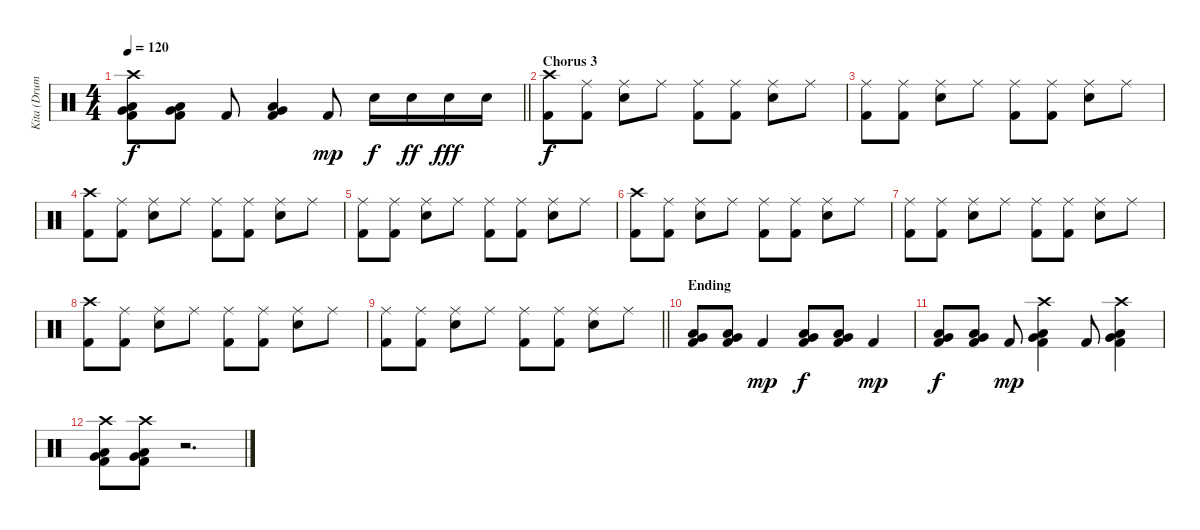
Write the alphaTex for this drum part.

\track ("Kita (Drums)" "Kita (Drum") {instrument percussion}
\staff {score}
\articulation defaults
\ts (4 4)
\tempo 120
\clef neutral
\barLineRight lightlight
\ks c
("Crash high (hit)" "Low Floor Tom (hit)" "Very Low Tom (hit)" "Kick (hit) 2").8{dy f} ("Low Floor Tom (hit)" "Very Low Tom (hit)" "Kick (hit) 2").8 "Kick (hit) 2".8 ("Kick (hit) 2" "Low Floor Tom (hit)" "Very Low Tom (hit)").4 "Kick (hit) 2".8{dy mp} "Snare (hit) 2".16{dy f} "Snare (hit) 2".16{dy ff} "Snare (hit) 2".16{dy fff} "Snare (hit) 2".16 |
\section ("" "Chorus 3")
("Crash high (hit)" "Kick (hit) 2").8{dy f} ("Ride (middle)" "Kick (hit) 2").8 ("Ride (middle)" "Snare (hit) 2").8 "Ride (middle)".8 ("Ride (middle)" "Kick (hit) 2").8 ("Ride (middle)" "Kick (hit) 2").8 ("Ride (middle)" "Snare (hit) 2").8 "Ride (middle)".8 |
("Ride (middle)" "Kick (hit) 2").8 ("Ride (middle)" "Kick (hit) 2").8 ("Ride (middle)" "Snare (hit) 2").8 "Ride (middle)".8 ("Ride (middle)" "Kick (hit) 2").8 ("Ride (middle)" "Kick (hit) 2").8 ("Ride (middle)" "Snare (hit) 2").8 "Ride (middle)".8 |
("Crash high (hit)" "Kick (hit) 2").8 ("Ride (middle)" "Kick (hit) 2").8 ("Ride (middle)" "Snare (hit) 2").8 "Ride (middle)".8 ("Ride (middle)" "Kick (hit) 2").8 ("Ride (middle)" "Kick (hit) 2").8 ("Ride (middle)" "Snare (hit) 2").8 "Ride (middle)".8 |
("Ride (middle)" "Kick (hit) 2").8 ("Ride (middle)" "Kick (hit) 2").8 ("Ride (middle)" "Snare (hit) 2").8 "Ride (middle)".8 ("Ride (middle)" "Kick (hit) 2").8 ("Ride (middle)" "Kick (hit) 2").8 ("Ride (middle)" "Snare (hit) 2").8 "Ride (middle)".8 |
("Crash high (hit)" "Kick (hit) 2").8 ("Ride (middle)" "Kick (hit) 2").8 ("Ride (middle)" "Snare (hit) 2").8 "Ride (middle)".8 ("Ride (middle)" "Kick (hit) 2").8 ("Ride (middle)" "Kick (hit) 2").8 ("Ride (middle)" "Snare (hit) 2").8 "Ride (middle)".8 |
("Ride (middle)" "Kick (hit) 2").8 ("Ride (middle)" "Kick (hit) 2").8 ("Ride (middle)" "Snare (hit) 2").8 "Ride (middle)".8 ("Ride (middle)" "Kick (hit) 2").8 ("Ride (middle)" "Kick (hit) 2").8 ("Ride (middle)" "Snare (hit) 2").8 "Ride (middle)".8 |
("Crash high (hit)" "Kick (hit) 2").8 ("Ride (middle)" "Kick (hit) 2").8 ("Ride (middle)" "Snare (hit) 2").8 "Ride (middle)".8 ("Ride (middle)" "Kick (hit) 2").8 ("Ride (middle)" "Kick (hit) 2").8 ("Ride (middle)" "Snare (hit) 2").8 "Ride (middle)".8 |
\barLineRight lightlight
("Ride (middle)" "Kick (hit) 2").8 ("Ride (middle)" "Kick (hit) 2").8 ("Ride (middle)" "Snare (hit) 2").8 "Ride (middle)".8 ("Ride (middle)" "Kick (hit) 2").8 ("Ride (middle)" "Kick (hit) 2").8 ("Ride (middle)" "Snare (hit) 2").8 "Ride (middle)".8 |
\section ("" "Ending")
("Low Floor Tom (hit)" "Very Low Tom (hit)" "Kick (hit) 2").8 ("Low Floor Tom (hit)" "Very Low Tom (hit)" "Kick (hit) 2").8 "Kick (hit) 2".4{dy mp} ("Low Floor Tom (hit)" "Very Low Tom (hit)" "Kick (hit) 2").8{dy f} ("Low Floor Tom (hit)" "Very Low Tom (hit)" "Kick (hit) 2").8 "Kick (hit) 2".4{dy mp} |
("Low Floor Tom (hit)" "Very Low Tom (hit)" "Kick (hit) 2").8{dy f} ("Low Floor Tom (hit)" "Very Low Tom (hit)" "Kick (hit) 2").8 "Kick (hit) 2".8{dy mp} ("Crash high (hit)" "Kick (hit) 2" "Low Floor Tom (hit)" "Very Low Tom (hit)").4 "Kick (hit) 2".8 ("Crash high (hit)" "Kick (hit) 2" "Very Low Tom (hit)" "Low Floor Tom (hit)").4 |
("Crash high (hit)" "Kick (hit) 2" "Very Low Tom (hit)" "Low Floor Tom (hit)").8 ("Crash high (hit)" "Kick (hit) 2" "Very Low Tom (hit)" "Low Floor Tom (hit)").8 r.2{d}
